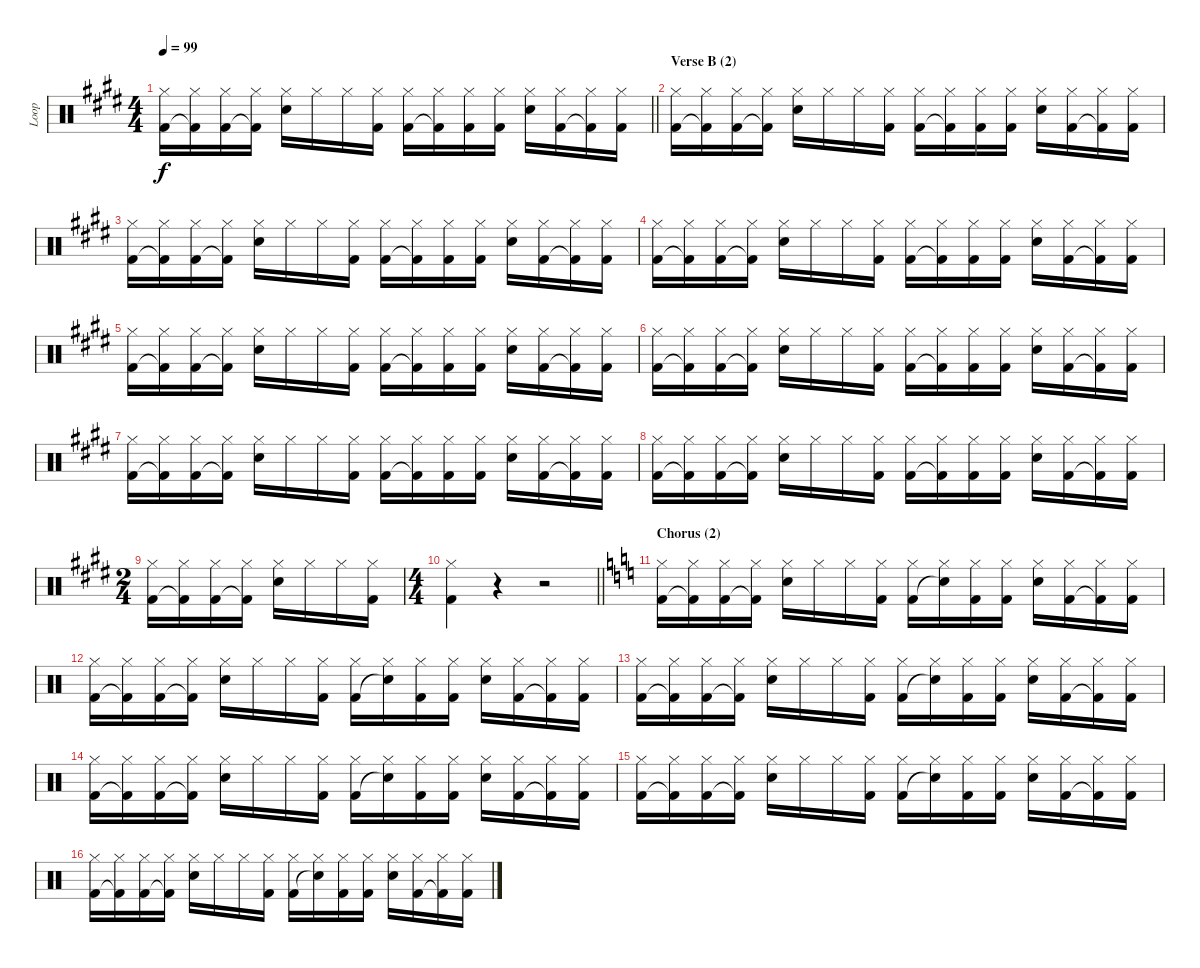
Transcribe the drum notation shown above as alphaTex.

\track ("Loop" "Loop") {instrument percussion}
\staff {score}
\articulation defaults
\ts (4 4)
\tempo 99
\clef neutral
\barLineRight lightlight
\ks c#minor
("Hi-Hat (closed)" "Kick (hit) 2").16{dy f} ("Hi-Hat (closed)" "Kick (hit) 2"{t}).16 ("Hi-Hat (closed)" "Kick (hit) 2").16 ("Hi-Hat (closed)" "Kick (hit) 2"{t}).16 ("Hi-Hat (closed)" "Electric Snare (hit)").16 "Hi-Hat (closed)".16 "Hi-Hat (closed)".16 ("Hi-Hat (closed)" "Kick (hit) 2").16 ("Hi-Hat (closed)" "Kick (hit) 2").16 ("Hi-Hat (closed)" "Kick (hit) 2"{t}).16 ("Hi-Hat (closed)" "Kick (hit) 2").16 ("Hi-Hat (closed)" "Kick (hit) 2").16 ("Hi-Hat (closed)" "Electric Snare (hit)").16 ("Hi-Hat (closed)" "Kick (hit) 2").16 ("Hi-Hat (closed)" "Kick (hit) 2"{t}).16 ("Hi-Hat (closed)" "Kick (hit) 2").16 |
\section ("" "Verse B (2)")
("Hi-Hat (closed)" "Kick (hit) 2").16 ("Hi-Hat (closed)" "Kick (hit) 2"{t}).16 ("Hi-Hat (closed)" "Kick (hit) 2").16 ("Hi-Hat (closed)" "Kick (hit) 2"{t}).16 ("Hi-Hat (closed)" "Electric Snare (hit)").16 "Hi-Hat (closed)".16 "Hi-Hat (closed)".16 ("Hi-Hat (closed)" "Kick (hit) 2").16 ("Hi-Hat (closed)" "Kick (hit) 2").16 ("Hi-Hat (closed)" "Kick (hit) 2"{t}).16 ("Hi-Hat (closed)" "Kick (hit) 2").16 ("Hi-Hat (closed)" "Kick (hit) 2").16 ("Hi-Hat (closed)" "Electric Snare (hit)").16 ("Hi-Hat (closed)" "Kick (hit) 2").16 ("Hi-Hat (closed)" "Kick (hit) 2"{t}).16 ("Hi-Hat (closed)" "Kick (hit) 2").16 |
("Hi-Hat (closed)" "Kick (hit) 2").16 ("Hi-Hat (closed)" "Kick (hit) 2"{t}).16 ("Hi-Hat (closed)" "Kick (hit) 2").16 ("Hi-Hat (closed)" "Kick (hit) 2"{t}).16 ("Hi-Hat (closed)" "Electric Snare (hit)").16 "Hi-Hat (closed)".16 "Hi-Hat (closed)".16 ("Hi-Hat (closed)" "Kick (hit) 2").16 ("Hi-Hat (closed)" "Kick (hit) 2").16 ("Hi-Hat (closed)" "Kick (hit) 2"{t}).16 ("Hi-Hat (closed)" "Kick (hit) 2").16 ("Hi-Hat (closed)" "Kick (hit) 2").16 ("Hi-Hat (closed)" "Electric Snare (hit)").16 ("Hi-Hat (closed)" "Kick (hit) 2").16 ("Hi-Hat (closed)" "Kick (hit) 2"{t}).16 ("Hi-Hat (closed)" "Kick (hit) 2").16 |
("Hi-Hat (closed)" "Kick (hit) 2").16 ("Hi-Hat (closed)" "Kick (hit) 2"{t}).16 ("Hi-Hat (closed)" "Kick (hit) 2").16 ("Hi-Hat (closed)" "Kick (hit) 2"{t}).16 ("Hi-Hat (closed)" "Electric Snare (hit)").16 "Hi-Hat (closed)".16 "Hi-Hat (closed)".16 ("Hi-Hat (closed)" "Kick (hit) 2").16 ("Hi-Hat (closed)" "Kick (hit) 2").16 ("Hi-Hat (closed)" "Kick (hit) 2"{t}).16 ("Hi-Hat (closed)" "Kick (hit) 2").16 ("Hi-Hat (closed)" "Kick (hit) 2").16 ("Hi-Hat (closed)" "Electric Snare (hit)").16 ("Hi-Hat (closed)" "Kick (hit) 2").16 ("Hi-Hat (closed)" "Kick (hit) 2"{t}).16 ("Hi-Hat (closed)" "Kick (hit) 2").16 |
("Hi-Hat (closed)" "Kick (hit) 2").16 ("Hi-Hat (closed)" "Kick (hit) 2"{t}).16 ("Hi-Hat (closed)" "Kick (hit) 2").16 ("Hi-Hat (closed)" "Kick (hit) 2"{t}).16 ("Hi-Hat (closed)" "Electric Snare (hit)").16 "Hi-Hat (closed)".16 "Hi-Hat (closed)".16 ("Hi-Hat (closed)" "Kick (hit) 2").16 ("Hi-Hat (closed)" "Kick (hit) 2").16 ("Hi-Hat (closed)" "Kick (hit) 2"{t}).16 ("Hi-Hat (closed)" "Kick (hit) 2").16 ("Hi-Hat (closed)" "Kick (hit) 2").16 ("Hi-Hat (closed)" "Electric Snare (hit)").16 ("Hi-Hat (closed)" "Kick (hit) 2").16 ("Hi-Hat (closed)" "Kick (hit) 2"{t}).16 ("Hi-Hat (closed)" "Kick (hit) 2").16 |
("Hi-Hat (closed)" "Kick (hit) 2").16 ("Hi-Hat (closed)" "Kick (hit) 2"{t}).16 ("Hi-Hat (closed)" "Kick (hit) 2").16 ("Hi-Hat (closed)" "Kick (hit) 2"{t}).16 ("Hi-Hat (closed)" "Electric Snare (hit)").16 "Hi-Hat (closed)".16 "Hi-Hat (closed)".16 ("Hi-Hat (closed)" "Kick (hit) 2").16 ("Hi-Hat (closed)" "Kick (hit) 2").16 ("Hi-Hat (closed)" "Kick (hit) 2"{t}).16 ("Hi-Hat (closed)" "Kick (hit) 2").16 ("Hi-Hat (closed)" "Kick (hit) 2").16 ("Hi-Hat (closed)" "Electric Snare (hit)").16 ("Hi-Hat (closed)" "Kick (hit) 2").16 ("Hi-Hat (closed)" "Kick (hit) 2"{t}).16 ("Hi-Hat (closed)" "Kick (hit) 2").16 |
("Hi-Hat (closed)" "Kick (hit) 2").16 ("Hi-Hat (closed)" "Kick (hit) 2"{t}).16 ("Hi-Hat (closed)" "Kick (hit) 2").16 ("Hi-Hat (closed)" "Kick (hit) 2"{t}).16 ("Hi-Hat (closed)" "Electric Snare (hit)").16 "Hi-Hat (closed)".16 "Hi-Hat (closed)".16 ("Hi-Hat (closed)" "Kick (hit) 2").16 ("Hi-Hat (closed)" "Kick (hit) 2").16 ("Hi-Hat (closed)" "Kick (hit) 2"{t}).16 ("Hi-Hat (closed)" "Kick (hit) 2").16 ("Hi-Hat (closed)" "Kick (hit) 2").16 ("Hi-Hat (closed)" "Electric Snare (hit)").16 ("Hi-Hat (closed)" "Kick (hit) 2").16 ("Hi-Hat (closed)" "Kick (hit) 2"{t}).16 ("Hi-Hat (closed)" "Kick (hit) 2").16 |
("Hi-Hat (closed)" "Kick (hit) 2").16 ("Hi-Hat (closed)" "Kick (hit) 2"{t}).16 ("Hi-Hat (closed)" "Kick (hit) 2").16 ("Hi-Hat (closed)" "Kick (hit) 2"{t}).16 ("Hi-Hat (closed)" "Electric Snare (hit)").16 "Hi-Hat (closed)".16 "Hi-Hat (closed)".16 ("Hi-Hat (closed)" "Kick (hit) 2").16 ("Hi-Hat (closed)" "Kick (hit) 2").16 ("Hi-Hat (closed)" "Kick (hit) 2"{t}).16 ("Hi-Hat (closed)" "Kick (hit) 2").16 ("Hi-Hat (closed)" "Kick (hit) 2").16 ("Hi-Hat (closed)" "Electric Snare (hit)").16 ("Hi-Hat (closed)" "Kick (hit) 2").16 ("Hi-Hat (closed)" "Kick (hit) 2"{t}).16 ("Hi-Hat (closed)" "Kick (hit) 2").16 |
\ts (2 4)
("Hi-Hat (closed)" "Kick (hit) 2").16 ("Hi-Hat (closed)" "Kick (hit) 2"{t}).16 ("Hi-Hat (closed)" "Kick (hit) 2").16 ("Hi-Hat (closed)" "Kick (hit) 2"{t}).16 ("Hi-Hat (closed)" "Electric Snare (hit)").16 "Hi-Hat (closed)".16 "Hi-Hat (closed)".16 ("Hi-Hat (closed)" "Kick (hit) 2").16 |
\ts (4 4)
\barLineRight lightlight
("Hi-Hat (closed)" "Kick (hit) 2").4 r.4 r.2 |
\section ("" "Chorus (2)")
\ks c
("Hi-Hat (closed)" "Kick (hit) 2").16 ("Hi-Hat (closed)" "Kick (hit) 2"{t}).16 ("Hi-Hat (closed)" "Kick (hit) 2").16 ("Hi-Hat (closed)" "Kick (hit) 2"{t}).16 ("Hi-Hat (closed)" "Electric Snare (hit)").16 "Hi-Hat (closed)".16 "Hi-Hat (closed)".16 ("Hi-Hat (closed)" "Kick (hit) 2").16 ("Hi-Hat (closed)" "Kick (hit) 2").16 ("Hi-Hat (closed)" "Snare (hit)"{t}).16 ("Hi-Hat (closed)" "Kick (hit) 2").16 ("Hi-Hat (closed)" "Kick (hit) 2").16 ("Hi-Hat (closed)" "Electric Snare (hit)").16 ("Hi-Hat (closed)" "Kick (hit) 2").16 ("Hi-Hat (closed)" "Kick (hit) 2"{t}).16 ("Hi-Hat (closed)" "Kick (hit) 2").16 |
("Hi-Hat (closed)" "Kick (hit) 2").16 ("Hi-Hat (closed)" "Kick (hit) 2"{t}).16 ("Hi-Hat (closed)" "Kick (hit) 2").16 ("Hi-Hat (closed)" "Kick (hit) 2"{t}).16 ("Hi-Hat (closed)" "Electric Snare (hit)").16 "Hi-Hat (closed)".16 "Hi-Hat (closed)".16 ("Hi-Hat (closed)" "Kick (hit) 2").16 ("Hi-Hat (closed)" "Kick (hit) 2").16 ("Hi-Hat (closed)" "Snare (hit)"{t}).16 ("Hi-Hat (closed)" "Kick (hit) 2").16 ("Hi-Hat (closed)" "Kick (hit) 2").16 ("Hi-Hat (closed)" "Electric Snare (hit)").16 ("Hi-Hat (closed)" "Kick (hit) 2").16 ("Hi-Hat (closed)" "Kick (hit) 2"{t}).16 ("Hi-Hat (closed)" "Kick (hit) 2").16 |
("Hi-Hat (closed)" "Kick (hit) 2").16 ("Hi-Hat (closed)" "Kick (hit) 2"{t}).16 ("Hi-Hat (closed)" "Kick (hit) 2").16 ("Hi-Hat (closed)" "Kick (hit) 2"{t}).16 ("Hi-Hat (closed)" "Electric Snare (hit)").16 "Hi-Hat (closed)".16 "Hi-Hat (closed)".16 ("Hi-Hat (closed)" "Kick (hit) 2").16 ("Hi-Hat (closed)" "Kick (hit) 2").16 ("Hi-Hat (closed)" "Snare (hit)"{t}).16 ("Hi-Hat (closed)" "Kick (hit) 2").16 ("Hi-Hat (closed)" "Kick (hit) 2").16 ("Hi-Hat (closed)" "Electric Snare (hit)").16 ("Hi-Hat (closed)" "Kick (hit) 2").16 ("Hi-Hat (closed)" "Kick (hit) 2"{t}).16 ("Hi-Hat (closed)" "Kick (hit) 2").16 |
("Hi-Hat (closed)" "Kick (hit) 2").16 ("Hi-Hat (closed)" "Kick (hit) 2"{t}).16 ("Hi-Hat (closed)" "Kick (hit) 2").16 ("Hi-Hat (closed)" "Kick (hit) 2"{t}).16 ("Hi-Hat (closed)" "Electric Snare (hit)").16 "Hi-Hat (closed)".16 "Hi-Hat (closed)".16 ("Hi-Hat (closed)" "Kick (hit) 2").16 ("Hi-Hat (closed)" "Kick (hit) 2").16 ("Hi-Hat (closed)" "Snare (hit)"{t}).16 ("Hi-Hat (closed)" "Kick (hit) 2").16 ("Hi-Hat (closed)" "Kick (hit) 2").16 ("Hi-Hat (closed)" "Electric Snare (hit)").16 ("Hi-Hat (closed)" "Kick (hit) 2").16 ("Hi-Hat (closed)" "Kick (hit) 2"{t}).16 ("Hi-Hat (closed)" "Kick (hit) 2").16 |
("Hi-Hat (closed)" "Kick (hit) 2").16 ("Hi-Hat (closed)" "Kick (hit) 2"{t}).16 ("Hi-Hat (closed)" "Kick (hit) 2").16 ("Hi-Hat (closed)" "Kick (hit) 2"{t}).16 ("Hi-Hat (closed)" "Electric Snare (hit)").16 "Hi-Hat (closed)".16 "Hi-Hat (closed)".16 ("Hi-Hat (closed)" "Kick (hit) 2").16 ("Hi-Hat (closed)" "Kick (hit) 2").16 ("Hi-Hat (closed)" "Snare (hit)"{t}).16 ("Hi-Hat (closed)" "Kick (hit) 2").16 ("Hi-Hat (closed)" "Kick (hit) 2").16 ("Hi-Hat (closed)" "Electric Snare (hit)").16 ("Hi-Hat (closed)" "Kick (hit) 2").16 ("Hi-Hat (closed)" "Kick (hit) 2"{t}).16 ("Hi-Hat (closed)" "Kick (hit) 2").16 |
("Hi-Hat (closed)" "Kick (hit) 2").16 ("Hi-Hat (closed)" "Kick (hit) 2"{t}).16 ("Hi-Hat (closed)" "Kick (hit) 2").16 ("Hi-Hat (closed)" "Kick (hit) 2"{t}).16 ("Hi-Hat (closed)" "Electric Snare (hit)").16 "Hi-Hat (closed)".16 "Hi-Hat (closed)".16 ("Hi-Hat (closed)" "Kick (hit) 2").16 ("Hi-Hat (closed)" "Kick (hit) 2").16 ("Hi-Hat (closed)" "Snare (hit)"{t}).16 ("Hi-Hat (closed)" "Kick (hit) 2").16 ("Hi-Hat (closed)" "Kick (hit) 2").16 ("Hi-Hat (closed)" "Electric Snare (hit)").16 ("Hi-Hat (closed)" "Kick (hit) 2").16 ("Hi-Hat (closed)" "Kick (hit) 2"{t}).16 ("Hi-Hat (closed)" "Kick (hit) 2").16
